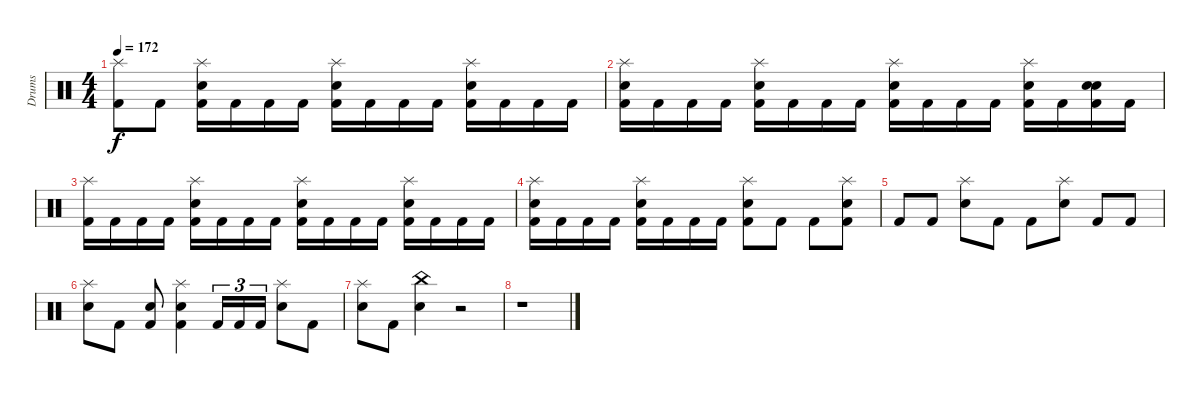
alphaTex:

\track ("Drums" "Drums") {instrument percussion}
\staff {score}
\articulation defaults
\ts (4 4)
\tempo 172
\clef neutral
\ks c
("Splash (hit)" "Kick (hit) 2").8{dy f} "Kick (hit) 2".8 ("Splash (hit)" "Electric Snare (hit)" "Kick (hit) 2").16 "Kick (hit) 2".16 "Kick (hit) 2".16 "Kick (hit) 2".16 ("Splash (hit)" "Electric Snare (hit)" "Kick (hit) 2").16 "Kick (hit) 2".16 "Kick (hit) 2".16 "Kick (hit) 2".16 ("Splash (hit)" "Electric Snare (hit)" "Kick (hit) 2").16 "Kick (hit) 2".16 "Kick (hit) 2".16 "Kick (hit) 2".16 |
("Splash (hit)" "Electric Snare (hit)" "Kick (hit) 2").16 "Kick (hit) 2".16 "Kick (hit) 2".16 "Kick (hit) 2".16 ("Splash (hit)" "Electric Snare (hit)" "Kick (hit) 2").16 "Kick (hit) 2".16 "Kick (hit) 2".16 "Kick (hit) 2".16 ("Splash (hit)" "Electric Snare (hit)" "Kick (hit) 2").16 "Kick (hit) 2".16 "Kick (hit) 2".16 "Kick (hit) 2".16 ("Splash (hit)" "Electric Snare (hit)" "Kick (hit) 2").16 "Kick (hit) 2".16 ("Electric Snare (hit)" "Electric Snare (hit)" "Kick (hit) 2").16 "Kick (hit) 2".16 |
("Splash (hit)" "Kick (hit) 2").16 "Kick (hit) 2".16 "Kick (hit) 2".16 "Kick (hit) 2".16 ("Splash (hit)" "Electric Snare (hit)" "Kick (hit) 2").16 "Kick (hit) 2".16 "Kick (hit) 2".16 "Kick (hit) 2".16 ("Splash (hit)" "Electric Snare (hit)" "Kick (hit) 2").16 "Kick (hit) 2".16 "Kick (hit) 2".16 "Kick (hit) 2".16 ("Splash (hit)" "Electric Snare (hit)" "Kick (hit) 2").16 "Kick (hit) 2".16 "Kick (hit) 2".16 "Kick (hit) 2".16 |
("Splash (hit)" "Electric Snare (hit)" "Kick (hit) 2").16 "Kick (hit) 2".16 "Kick (hit) 2".16 "Kick (hit) 2".16 ("Splash (hit)" "Electric Snare (hit)" "Kick (hit) 2").16 "Kick (hit) 2".16 "Kick (hit) 2".16 "Kick (hit) 2".16 ("Splash (hit)" "Electric Snare (hit)" "Kick (hit) 2").8 "Kick (hit) 2".8 "Kick (hit) 2".8 ("Splash (hit)" "Electric Snare (hit)" "Kick (hit) 2").8 |
"Kick (hit) 2".8 "Kick (hit) 2".8 ("Splash (hit)" "Electric Snare (hit)").8 "Kick (hit) 2".8 "Kick (hit) 2".8 ("Splash (hit)" "Electric Snare (hit)").8 "Kick (hit) 2".8 "Kick (hit) 2".8 |
("Splash (hit)" "Electric Snare (hit)").8 "Kick (hit) 2".8 ("Electric Snare (hit)" "Kick (hit) 2").8 ("Splash (hit)" "Electric Snare (hit)" "Kick (hit) 2").4 "Kick (hit) 2".16{tu (3 2)} "Kick (hit) 2".16{tu (3 2)} "Kick (hit) 2".16{tu (3 2)} ("Splash (hit)" "Electric Snare (hit)").8 "Kick (hit) 2".8 |
("Splash (hit)" "Electric Snare (hit)").8 "Kick (hit) 2".8 ("China (hit)" "Electric Snare (hit)").4 r.2 |
r.1
